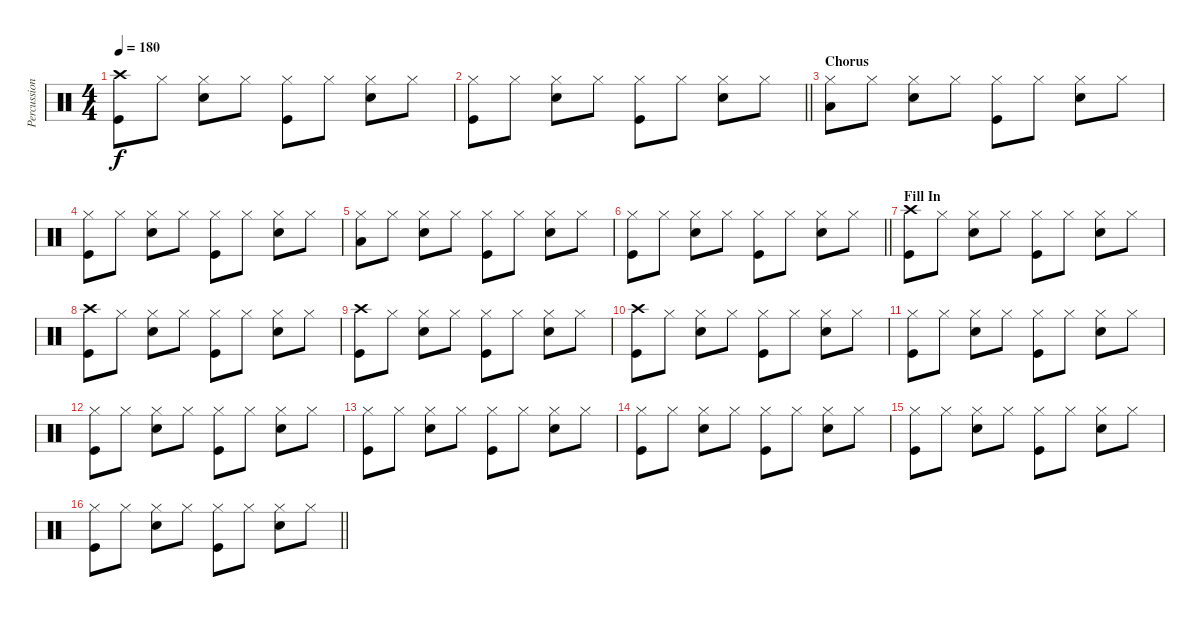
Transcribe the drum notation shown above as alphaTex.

\track ("Percussion" "Percussion") {mute instrument percussion}
\staff {score}
\articulation defaults
\ts (4 4)
\tempo 180
\clef neutral
\ks c
("Crash high (hit)" "Kick (hit)").8{dy f} "Hi-Hat (closed)".8 ("Hi-Hat (closed)" "Snare (hit) 2").8 "Hi-Hat (closed)".8 ("Hi-Hat (closed)" "Kick (hit)").8 "Hi-Hat (closed)".8 ("Hi-Hat (closed)" "Snare (hit) 2").8 "Hi-Hat (closed)".8 |
\barLineRight lightlight
("Hi-Hat (closed)" "Kick (hit)").8 "Hi-Hat (closed)".8 ("Hi-Hat (closed)" "Snare (hit) 2").8 "Hi-Hat (closed)".8 ("Hi-Hat (closed)" "Kick (hit)").8 "Hi-Hat (closed)".8 ("Hi-Hat (closed)" "Snare (hit) 2").8 "Hi-Hat (closed)".8 |
\section ("" "Chorus")
("Hi-Hat (closed)" "Low Floor Tom (hit)").8 "Hi-Hat (closed)".8 ("Hi-Hat (closed)" "Snare (hit) 2").8 "Hi-Hat (closed)".8 ("Hi-Hat (closed)" "Kick (hit)").8 "Hi-Hat (closed)".8 ("Hi-Hat (closed)" "Snare (hit) 2").8 "Hi-Hat (closed)".8 |
("Hi-Hat (closed)" "Kick (hit)").8 "Hi-Hat (closed)".8 ("Hi-Hat (closed)" "Snare (hit) 2").8 "Hi-Hat (closed)".8 ("Hi-Hat (closed)" "Kick (hit)").8 "Hi-Hat (closed)".8 ("Hi-Hat (closed)" "Snare (hit) 2").8 "Hi-Hat (closed)".8 |
("Hi-Hat (closed)" "Low Floor Tom (hit)").8 "Hi-Hat (closed)".8 ("Hi-Hat (closed)" "Snare (hit) 2").8 "Hi-Hat (closed)".8 ("Hi-Hat (closed)" "Kick (hit)").8 "Hi-Hat (closed)".8 ("Hi-Hat (closed)" "Snare (hit) 2").8 "Hi-Hat (closed)".8 |
\barLineRight lightlight
("Hi-Hat (closed)" "Kick (hit)").8 "Hi-Hat (closed)".8 ("Hi-Hat (closed)" "Snare (hit) 2").8 "Hi-Hat (closed)".8 ("Hi-Hat (closed)" "Kick (hit)").8 "Hi-Hat (closed)".8 ("Hi-Hat (closed)" "Snare (hit) 2").8 "Hi-Hat (closed)".8 |
\section ("" "Fill In")
("Crash high (hit)" "Kick (hit)").8 "Hi-Hat (closed)".8 ("Hi-Hat (closed)" "Snare (hit) 2").8 "Hi-Hat (closed)".8 ("Hi-Hat (closed)" "Kick (hit)").8 "Hi-Hat (closed)".8 ("Hi-Hat (closed)" "Snare (hit) 2").8 "Hi-Hat (closed)".8 |
("Crash high (hit)" "Kick (hit)").8 "Hi-Hat (closed)".8 ("Hi-Hat (closed)" "Snare (hit) 2").8 "Hi-Hat (closed)".8 ("Hi-Hat (closed)" "Kick (hit)").8 "Hi-Hat (closed)".8 ("Hi-Hat (closed)" "Snare (hit) 2").8 "Hi-Hat (closed)".8 |
("Crash high (hit)" "Kick (hit)").8 "Hi-Hat (closed)".8 ("Hi-Hat (closed)" "Snare (hit) 2").8 "Hi-Hat (closed)".8 ("Hi-Hat (closed)" "Kick (hit)").8 "Hi-Hat (closed)".8 ("Hi-Hat (closed)" "Snare (hit) 2").8 "Hi-Hat (closed)".8 |
("Crash high (hit)" "Kick (hit)").8 "Hi-Hat (closed)".8 ("Hi-Hat (closed)" "Snare (hit) 2").8 "Hi-Hat (closed)".8 ("Hi-Hat (closed)" "Kick (hit)").8 "Hi-Hat (closed)".8 ("Hi-Hat (closed)" "Snare (hit) 2").8 "Hi-Hat (closed)".8 |
("Hi-Hat (closed)" "Kick (hit)").8 "Hi-Hat (closed)".8 ("Hi-Hat (closed)" "Snare (hit) 2").8 "Hi-Hat (closed)".8 ("Hi-Hat (closed)" "Kick (hit)").8 "Hi-Hat (closed)".8 ("Hi-Hat (closed)" "Snare (hit) 2").8 "Hi-Hat (closed)".8 |
("Hi-Hat (closed)" "Kick (hit)").8 "Hi-Hat (closed)".8 ("Hi-Hat (closed)" "Snare (hit) 2").8 "Hi-Hat (closed)".8 ("Hi-Hat (closed)" "Kick (hit)").8 "Hi-Hat (closed)".8 ("Hi-Hat (closed)" "Snare (hit) 2").8 "Hi-Hat (closed)".8 |
("Hi-Hat (closed)" "Kick (hit)").8 "Hi-Hat (closed)".8 ("Hi-Hat (closed)" "Snare (hit) 2").8 "Hi-Hat (closed)".8 ("Hi-Hat (closed)" "Kick (hit)").8 "Hi-Hat (closed)".8 ("Hi-Hat (closed)" "Snare (hit) 2").8 "Hi-Hat (closed)".8 |
("Hi-Hat (closed)" "Kick (hit)").8 "Hi-Hat (closed)".8 ("Hi-Hat (closed)" "Snare (hit) 2").8 "Hi-Hat (closed)".8 ("Hi-Hat (closed)" "Kick (hit)").8 "Hi-Hat (closed)".8 ("Hi-Hat (closed)" "Snare (hit) 2").8 "Hi-Hat (closed)".8 |
("Hi-Hat (closed)" "Kick (hit)").8 "Hi-Hat (closed)".8 ("Hi-Hat (closed)" "Snare (hit) 2").8 "Hi-Hat (closed)".8 ("Hi-Hat (closed)" "Kick (hit)").8 "Hi-Hat (closed)".8 ("Hi-Hat (closed)" "Snare (hit) 2").8 "Hi-Hat (closed)".8 |
\barLineRight lightlight
("Hi-Hat (closed)" "Kick (hit)").8 "Hi-Hat (closed)".8 ("Hi-Hat (closed)" "Snare (hit) 2").8 "Hi-Hat (closed)".8 ("Hi-Hat (closed)" "Kick (hit)").8 "Hi-Hat (closed)".8 ("Hi-Hat (closed)" "Snare (hit) 2").8 "Hi-Hat (closed)".8
